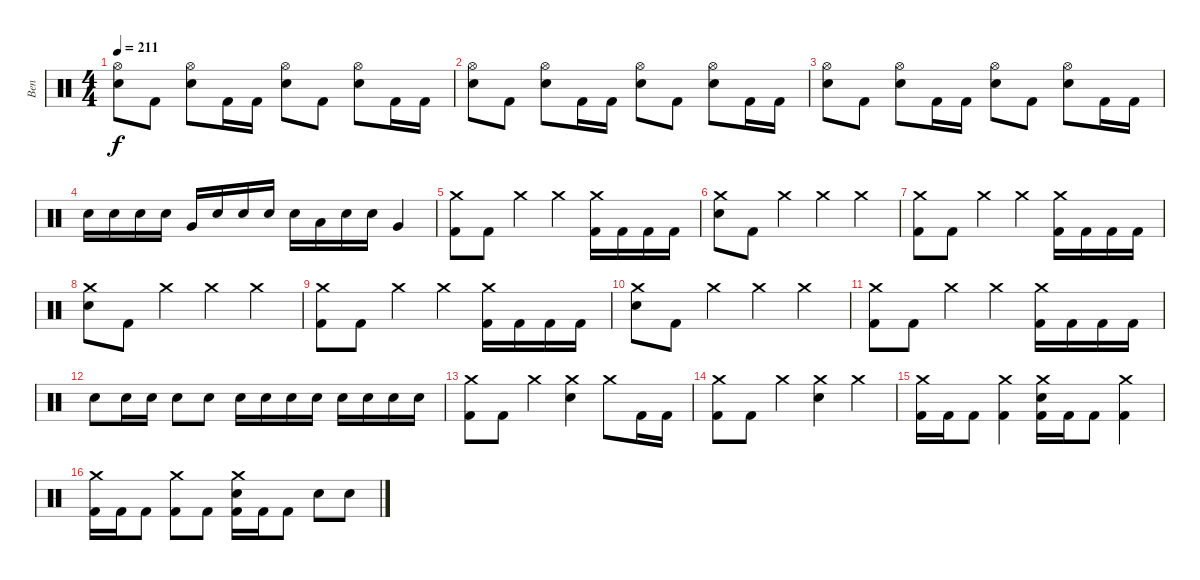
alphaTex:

\track ("Ben" "Ben") {instrument percussion}
\staff {score}
\articulation defaults
\ts (4 4)
\tempo 211
\clef neutral
\ks c
("Hi-Hat (open)" "Electric Snare (hit)").8{dy f} "Kick (hit) 2".8 ("Hi-Hat (open)" "Electric Snare (hit)").8 "Kick (hit) 2".16 "Kick (hit) 2".16 ("Hi-Hat (open)" "Electric Snare (hit)").8 "Kick (hit) 2".8 ("Hi-Hat (open)" "Electric Snare (hit)").8 "Kick (hit) 2".16 "Kick (hit) 2".16 |
("Hi-Hat (open)" "Electric Snare (hit)").8 "Kick (hit) 2".8 ("Hi-Hat (open)" "Electric Snare (hit)").8 "Kick (hit) 2".16 "Kick (hit) 2".16 ("Hi-Hat (open)" "Electric Snare (hit)").8 "Kick (hit) 2".8 ("Hi-Hat (open)" "Electric Snare (hit)").8 "Kick (hit) 2".16 "Kick (hit) 2".16 |
("Hi-Hat (open)" "Electric Snare (hit)").8 "Kick (hit) 2".8 ("Hi-Hat (open)" "Electric Snare (hit)").8 "Kick (hit) 2".16 "Kick (hit) 2".16 ("Hi-Hat (open)" "Electric Snare (hit)").8 "Kick (hit) 2".8 ("Hi-Hat (open)" "Electric Snare (hit)").8 "Kick (hit) 2".16 "Kick (hit) 2".16 |
"Electric Snare (hit)".16 "Electric Snare (hit)".16 "Electric Snare (hit)".16 "Electric Snare (hit)".16 "Very Low Tom (hit)".16 "Electric Snare (hit)".16 "Electric Snare (hit)".16 "Electric Snare (hit)".16 "Electric Snare (hit)".16 "Low Tom (hit)".16 "Electric Snare (hit)".16 "Electric Snare (hit)".16 "Very Low Tom (hit)".4 |
("Crash medium (hit)" "Kick (hit) 2").8 "Kick (hit) 2".8 "Crash medium (hit)".4 "Crash medium (hit)".4 ("Crash medium (hit)" "Kick (hit) 2").16 "Kick (hit) 2".16 "Kick (hit) 2".16 "Kick (hit) 2".16 |
("Crash medium (hit)" "Electric Snare (hit)").8 "Kick (hit) 2".8 "Crash medium (hit)".4 "Crash medium (hit)".4 "Crash medium (hit)".4 |
("Crash medium (hit)" "Kick (hit) 2").8 "Kick (hit) 2".8 "Crash medium (hit)".4 "Crash medium (hit)".4 ("Crash medium (hit)" "Kick (hit) 2").16 "Kick (hit) 2".16 "Kick (hit) 2".16 "Kick (hit) 2".16 |
("Crash medium (hit)" "Electric Snare (hit)").8 "Kick (hit) 2".8 "Crash medium (hit)".4 "Crash medium (hit)".4 "Crash medium (hit)".4 |
("Crash medium (hit)" "Kick (hit) 2").8 "Kick (hit) 2".8 "Crash medium (hit)".4 "Crash medium (hit)".4 ("Crash medium (hit)" "Kick (hit) 2").16 "Kick (hit) 2".16 "Kick (hit) 2".16 "Kick (hit) 2".16 |
("Crash medium (hit)" "Electric Snare (hit)").8 "Kick (hit) 2".8 "Crash medium (hit)".4 "Crash medium (hit)".4 "Crash medium (hit)".4 |
("Crash medium (hit)" "Kick (hit) 2").8 "Kick (hit) 2".8 "Crash medium (hit)".4 "Crash medium (hit)".4 ("Crash medium (hit)" "Kick (hit) 2").16 "Kick (hit) 2".16 "Kick (hit) 2".16 "Kick (hit) 2".16 |
"Electric Snare (hit)".8 "Electric Snare (hit)".16 "Electric Snare (hit)".16 "Electric Snare (hit)".8 "Electric Snare (hit)".8 "Electric Snare (hit)".16 "Electric Snare (hit)".16 "Electric Snare (hit)".16 "Electric Snare (hit)".16 "Electric Snare (hit)".16 "Electric Snare (hit)".16 "Electric Snare (hit)".16 "Electric Snare (hit)".16 |
("Crash medium (hit)" "Kick (hit) 2").8 "Kick (hit) 2".8 "Crash medium (hit)".4 ("Crash medium (hit)" "Electric Snare (hit)").4 "Crash medium (hit)".8 "Kick (hit) 2".16 "Kick (hit) 2".16 |
("Crash medium (hit)" "Kick (hit) 2").8 "Kick (hit) 2".8 "Crash medium (hit)".4 ("Crash medium (hit)" "Electric Snare (hit)").4 "Crash medium (hit)".4 |
("Crash medium (hit)" "Kick (hit) 2").16 "Kick (hit) 2".16 "Kick (hit) 2".8 ("Crash medium (hit)" "Kick (hit) 2").4 ("Crash medium (hit)" "Electric Snare (hit)" "Kick (hit) 2").16 "Kick (hit) 2".16 "Kick (hit) 2".8 ("Crash medium (hit)" "Kick (hit) 2").4 |
("Crash medium (hit)" "Kick (hit) 2").16 "Kick (hit) 2".16 "Kick (hit) 2".8 ("Crash medium (hit)" "Kick (hit) 2").8 "Kick (hit) 2".8 ("Crash medium (hit)" "Electric Snare (hit)" "Kick (hit) 2").16 "Kick (hit) 2".16 "Kick (hit) 2".8 "Electric Snare (hit)".8 "Electric Snare (hit)".8
